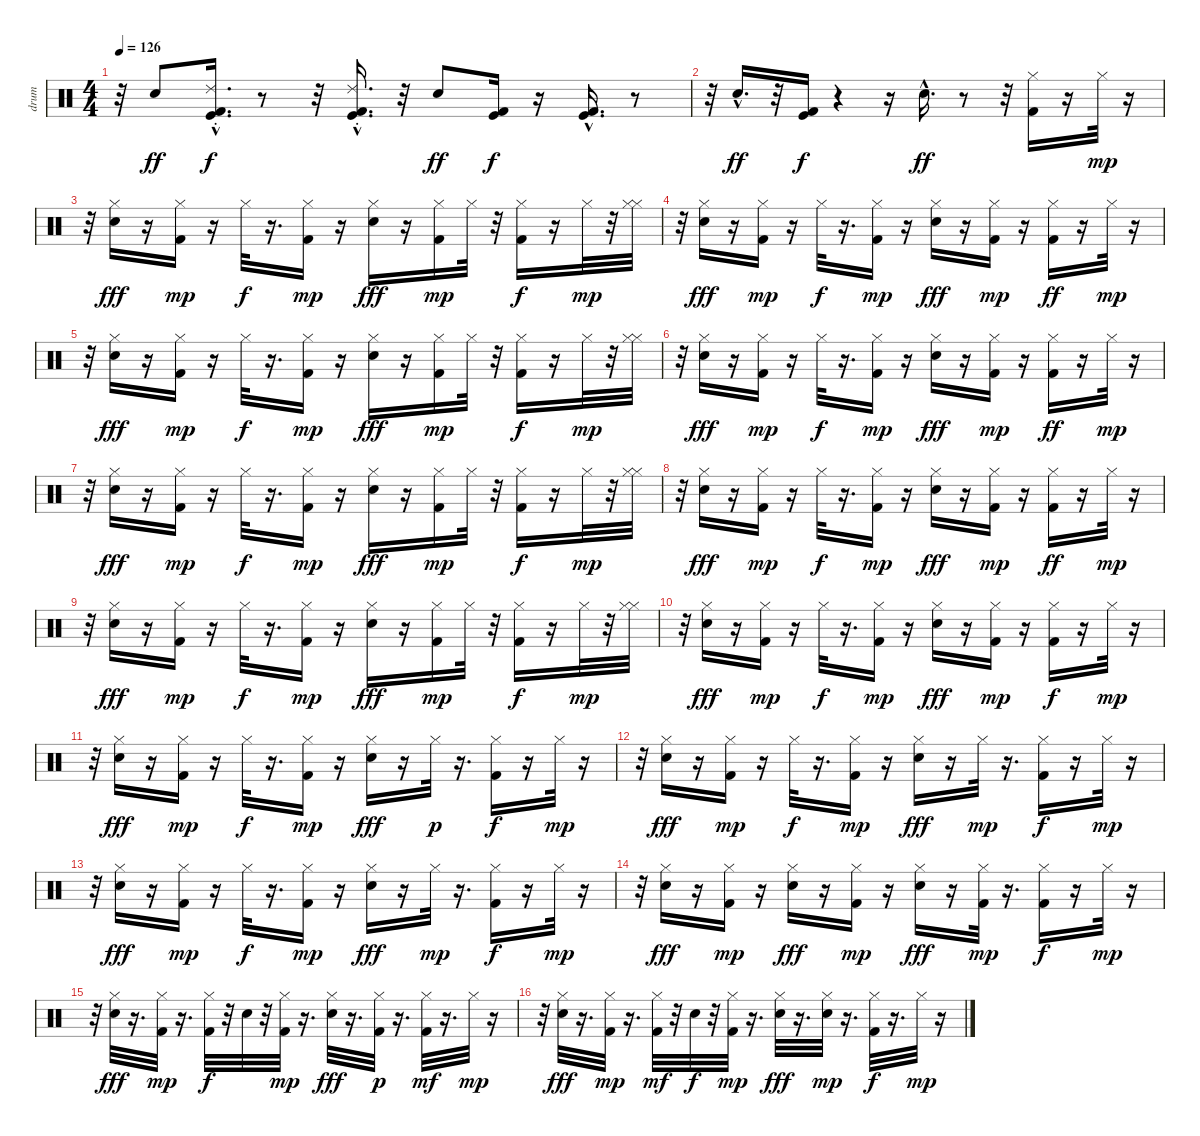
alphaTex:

\track ("drum" "drum") {instrument percussion}
\staff {score}
\articulation defaults
\ts (4 4)
\tempo 126
\clef neutral
\ks c
r.32{dy f} "Electric Snare (hit)".8{dy ff} ("Ride (choke) 2" "Kick (hit)"{hac} "Kick (hit) 2"{hac}).16{d dy f} r.8 r.32 ("Ride (choke) 2" "Kick (hit) 2"{hac} "Kick (hit)"{hac}).16{d} r.32 "Electric Snare (hit)".8{dy ff} ("Kick (hit) 2" "Kick (hit)").16{dy f} r.16 ("Kick (hit) 2"{hac} "Kick (hit)"{hac}).16{d} r.8 |
r.32 "Electric Snare (hit)"{hac}.16{d dy ff} r.32 ("Kick (hit)" "Kick (hit) 2").16{dy f} r.4 r.16 "Electric Snare (hit)"{hac}.16{d dy ff} r.8 r.32 ("Kick (hit) 2" "Hi-Hat (closed)").16 r.16 "Hi-Hat (closed)".32{dy mp} r.16 |
r.32 ("Electric Snare (hit)" "Hi-Hat (closed)").16{dy fff} r.16 ("Kick (hit) 2" "Hi-Hat (closed)").16{dy mp} r.16 "Hi-Hat (closed)".32{dy f} r.16{d} ("Kick (hit) 2" "Hi-Hat (closed)").16{dy mp} r.16 ("Electric Snare (hit)" "Hi-Hat (closed)").16{dy fff} r.16 ("Kick (hit) 2" "Hi-Hat (closed)").16{dy mp} "Hi-Hat (closed)".32 r.32 ("Kick (hit) 2" "Hi-Hat (closed)").16{dy f} r.16 "Hi-Hat (closed)".32{dy mp} r.32 ("Hi-Hat (closed)" "Hi-Hat (closed)").32 |
r.32 ("Electric Snare (hit)" "Hi-Hat (closed)").16{dy fff} r.16 ("Kick (hit) 2" "Hi-Hat (closed)").16{dy mp} r.16 "Hi-Hat (closed)".32{dy f} r.16{d} ("Kick (hit) 2" "Hi-Hat (closed)").16{dy mp} r.16 ("Electric Snare (hit)" "Hi-Hat (closed)").16{dy fff} r.16 ("Kick (hit) 2" "Hi-Hat (closed)").16{dy mp} r.16 ("Kick (hit) 2" "Hi-Hat (closed)").16{dy ff} r.16 "Hi-Hat (closed)".32{dy mp} r.16 |
r.32 ("Electric Snare (hit)" "Hi-Hat (closed)").16{dy fff} r.16 ("Kick (hit) 2" "Hi-Hat (closed)").16{dy mp} r.16 "Hi-Hat (closed)".32{dy f} r.16{d} ("Kick (hit) 2" "Hi-Hat (closed)").16{dy mp} r.16 ("Electric Snare (hit)" "Hi-Hat (closed)").16{dy fff} r.16 ("Kick (hit) 2" "Hi-Hat (closed)").16{dy mp} "Hi-Hat (closed)".32 r.32 ("Kick (hit) 2" "Hi-Hat (closed)").16{dy f} r.16 "Hi-Hat (closed)".32{dy mp} r.32 ("Hi-Hat (closed)" "Hi-Hat (closed)").32 |
r.32 ("Electric Snare (hit)" "Hi-Hat (closed)").16{dy fff} r.16 ("Kick (hit) 2" "Hi-Hat (closed)").16{dy mp} r.16 "Hi-Hat (closed)".32{dy f} r.16{d} ("Kick (hit) 2" "Hi-Hat (closed)").16{dy mp} r.16 ("Electric Snare (hit)" "Hi-Hat (closed)").16{dy fff} r.16 ("Kick (hit) 2" "Hi-Hat (closed)").16{dy mp} r.16 ("Kick (hit) 2" "Hi-Hat (closed)").16{dy ff} r.16 "Hi-Hat (closed)".32{dy mp} r.16 |
r.32 ("Electric Snare (hit)" "Hi-Hat (closed)").16{dy fff} r.16 ("Kick (hit) 2" "Hi-Hat (closed)").16{dy mp} r.16 "Hi-Hat (closed)".32{dy f} r.16{d} ("Kick (hit) 2" "Hi-Hat (closed)").16{dy mp} r.16 ("Electric Snare (hit)" "Hi-Hat (closed)").16{dy fff} r.16 ("Kick (hit) 2" "Hi-Hat (closed)").16{dy mp} "Hi-Hat (closed)".32 r.32 ("Kick (hit) 2" "Hi-Hat (closed)").16{dy f} r.16 "Hi-Hat (closed)".32{dy mp} r.32 ("Hi-Hat (closed)" "Hi-Hat (closed)").32 |
r.32 ("Electric Snare (hit)" "Hi-Hat (closed)").16{dy fff} r.16 ("Kick (hit) 2" "Hi-Hat (closed)").16{dy mp} r.16 "Hi-Hat (closed)".32{dy f} r.16{d} ("Kick (hit) 2" "Hi-Hat (closed)").16{dy mp} r.16 ("Electric Snare (hit)" "Hi-Hat (closed)").16{dy fff} r.16 ("Kick (hit) 2" "Hi-Hat (closed)").16{dy mp} r.16 ("Kick (hit) 2" "Hi-Hat (closed)").16{dy ff} r.16 "Hi-Hat (closed)".32{dy mp} r.16 |
r.32 ("Electric Snare (hit)" "Hi-Hat (closed)").16{dy fff} r.16 ("Kick (hit) 2" "Hi-Hat (closed)").16{dy mp} r.16 "Hi-Hat (closed)".32{dy f} r.16{d} ("Kick (hit) 2" "Hi-Hat (closed)").16{dy mp} r.16 ("Electric Snare (hit)" "Hi-Hat (closed)").16{dy fff} r.16 ("Kick (hit) 2" "Hi-Hat (closed)").16{dy mp} "Hi-Hat (closed)".32 r.32 ("Kick (hit) 2" "Hi-Hat (closed)").16{dy f} r.16 "Hi-Hat (closed)".32{dy mp} r.32 ("Hi-Hat (closed)" "Hi-Hat (closed)").32 |
r.32 ("Electric Snare (hit)" "Hi-Hat (closed)").16{dy fff} r.16 ("Kick (hit) 2" "Hi-Hat (closed)").16{dy mp} r.16 "Hi-Hat (closed)".32{dy f} r.16{d} ("Kick (hit) 2" "Hi-Hat (closed)").16{dy mp} r.16 ("Electric Snare (hit)" "Hi-Hat (closed)").16{dy fff} r.16 ("Kick (hit) 2" "Hi-Hat (closed)").16{dy mp} r.16 ("Kick (hit) 2" "Hi-Hat (closed)").16{dy f} r.16 "Hi-Hat (closed)".32{dy mp} r.16 |
r.32 ("Electric Snare (hit)" "Hi-Hat (closed)").16{dy fff} r.16 ("Kick (hit) 2" "Hi-Hat (closed)").16{dy mp} r.16 "Hi-Hat (closed)".32{dy f} r.16{d} ("Kick (hit) 2" "Hi-Hat (closed)").16{dy mp} r.16 ("Electric Snare (hit)" "Hi-Hat (closed)").16{dy fff} r.16 "Hi-Hat (closed)".32{dy p} r.16{d} ("Kick (hit) 2" "Hi-Hat (closed)").16{dy f} r.16 "Hi-Hat (closed)".32{dy mp} r.16 |
r.32 ("Electric Snare (hit)" "Hi-Hat (closed)").16{dy fff} r.16 ("Kick (hit) 2" "Hi-Hat (closed)").16{dy mp} r.16 "Hi-Hat (closed)".32{dy f} r.16{d} ("Kick (hit) 2" "Hi-Hat (closed)").16{dy mp} r.16 ("Electric Snare (hit)" "Hi-Hat (closed)").16{dy fff} r.16 "Hi-Hat (closed)".32{dy mp} r.16{d} ("Kick (hit) 2" "Hi-Hat (closed)").16{dy f} r.16 "Hi-Hat (closed)".32{dy mp} r.16 |
r.32 ("Electric Snare (hit)" "Hi-Hat (closed)").16{dy fff} r.16 ("Kick (hit) 2" "Hi-Hat (closed)").16{dy mp} r.16 "Hi-Hat (closed)".32{dy f} r.16{d} ("Kick (hit) 2" "Hi-Hat (closed)").16{dy mp} r.16 ("Electric Snare (hit)" "Hi-Hat (closed)").16{dy fff} r.16 "Hi-Hat (closed)".32{dy mp} r.16{d} ("Kick (hit) 2" "Hi-Hat (closed)").16{dy f} r.16 "Hi-Hat (closed)".32{dy mp} r.16 |
r.32 ("Electric Snare (hit)" "Hi-Hat (closed)").16{dy fff} r.16 ("Kick (hit) 2" "Hi-Hat (closed)").16{dy mp} r.16 ("Electric Snare (hit)" "Hi-Hat (closed)").16{dy fff} r.16 ("Kick (hit) 2" "Hi-Hat (closed)").16{dy mp} r.16 ("Electric Snare (hit)" "Hi-Hat (closed)").16{dy fff} r.16 ("Kick (hit) 2" "Hi-Hat (closed)").32{dy mp} r.16{d} ("Kick (hit) 2" "Hi-Hat (closed)").16{dy f} r.16 "Hi-Hat (closed)".32{dy mp} r.16 |
r.32 ("Electric Snare (hit)" "Hi-Hat (closed)").32{dy fff} r.16{d} ("Kick (hit) 2" "Hi-Hat (closed)").32{dy mp} r.16{d} ("Kick (hit) 2" "Hi-Hat (closed)").32{dy f} r.32 "Electric Snare (hit)".32 r.32 ("Kick (hit) 2" "Hi-Hat (closed)").32{dy mp} r.16{d} ("Electric Snare (hit)" "Hi-Hat (closed)").32{dy fff} r.16{d} ("Kick (hit) 2" "Hi-Hat (closed)").32{dy p} r.16{d} ("Kick (hit) 2" "Hi-Hat (closed)").32{dy mf} r.16{d} "Hi-Hat (closed)".32{dy mp} r.16 |
r.32 ("Electric Snare (hit)" "Hi-Hat (closed)").32{dy fff} r.16{d} ("Kick (hit) 2" "Hi-Hat (closed)").32{dy mp} r.16{d} ("Kick (hit) 2" "Hi-Hat (closed)").32{dy mf} r.32 "Electric Snare (hit)".32{dy f} r.32 ("Kick (hit) 2" "Hi-Hat (closed)").32{dy mp} r.16{d} ("Electric Snare (hit)" "Hi-Hat (closed)").32{dy fff} r.16{d} ("Electric Snare (hit)" "Hi-Hat (closed)").32{dy mp} r.16{d} ("Kick (hit) 2" "Hi-Hat (closed)").32{dy f} r.16{d} "Hi-Hat (closed)".32{dy mp} r.16
